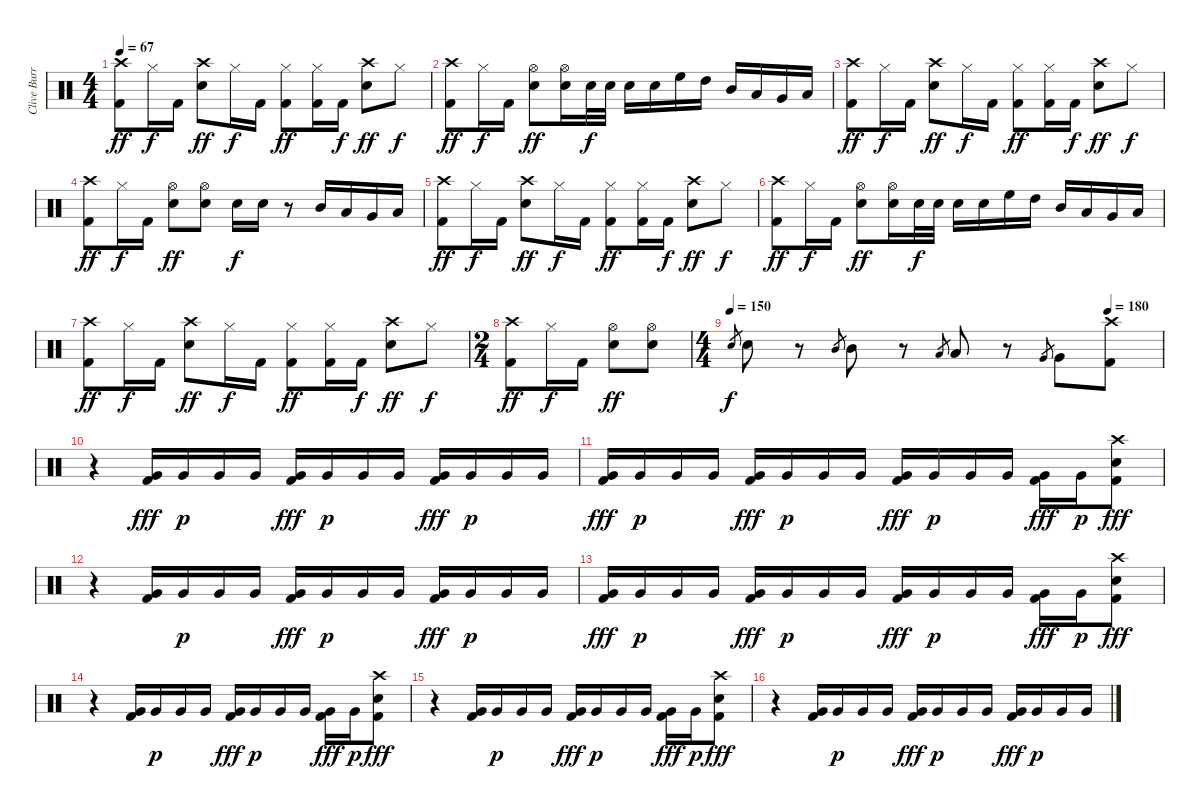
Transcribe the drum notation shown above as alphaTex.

\track ("Clive Burr - Drums" "Clive Burr") {instrument percussion}
\staff {score}
\articulation defaults
\ts (4 4)
\tempo 67
\clef neutral
\ks c
("Crash high (hit)" "Kick (hit) 2").8{dy ff} "Hi-Hat (closed)".16{dy f} "Kick (hit) 2".16 ("Crash high (hit)" "Snare (hit) 2").8{dy ff} "Hi-Hat (closed)".16{dy f} "Kick (hit) 2".16 ("Hi-Hat (closed)" "Kick (hit) 2").8{dy ff} ("Hi-Hat (closed)" "Kick (hit) 2").16 "Kick (hit) 2".16{dy f} ("Crash high (hit)" "Snare (hit) 2").8{dy ff} "Hi-Hat (closed)".8{dy f} |
("Crash high (hit)" "Kick (hit) 2").8{dy ff} "Hi-Hat (closed)".16{dy f} "Kick (hit) 2".16 ("Hi-Hat (open)" "Snare (hit) 2").8{dy ff} ("Hi-Hat (open)" "Snare (hit) 2").16 "Snare (hit) 2".32{dy f} "Snare (hit) 2".32 "Snare (hit) 2".16 "Snare (hit) 2".16 "High Floor Tom (hit)".16 "High Tom (hit)".16 "Mid Tom (hit)".16 "Low Tom (hit)".16 "Very Low Tom (hit)".16 "Low Floor Tom (hit)".16 |
("Crash high (hit)" "Kick (hit) 2").8{dy ff} "Hi-Hat (closed)".16{dy f} "Kick (hit) 2".16 ("Crash high (hit)" "Snare (hit) 2").8{dy ff} "Hi-Hat (closed)".16{dy f} "Kick (hit) 2".16 ("Hi-Hat (closed)" "Kick (hit) 2").8{dy ff} ("Hi-Hat (closed)" "Kick (hit) 2").16 "Kick (hit) 2".16{dy f} ("Crash high (hit)" "Snare (hit) 2").8{dy ff} "Hi-Hat (closed)".8{dy f} |
("Crash high (hit)" "Kick (hit) 2").8{dy ff} "Hi-Hat (closed)".16{dy f} "Kick (hit) 2".16 ("Hi-Hat (open)" "Snare (hit) 2").8{dy ff} ("Hi-Hat (open)" "Snare (hit) 2").8 "Snare (hit) 2".16{dy f} "Snare (hit) 2".16 r.8 "Mid Tom (hit)".16 "Low Tom (hit)".16 "Very Low Tom (hit)".16 "Low Floor Tom (hit)".16 |
("Crash high (hit)" "Kick (hit) 2").8{dy ff} "Hi-Hat (closed)".16{dy f} "Kick (hit) 2".16 ("Crash high (hit)" "Snare (hit) 2").8{dy ff} "Hi-Hat (closed)".16{dy f} "Kick (hit) 2".16 ("Hi-Hat (closed)" "Kick (hit) 2").8{dy ff} ("Hi-Hat (closed)" "Kick (hit) 2").16 "Kick (hit) 2".16{dy f} ("Crash high (hit)" "Snare (hit) 2").8{dy ff} "Hi-Hat (closed)".8{dy f} |
("Crash high (hit)" "Kick (hit) 2").8{dy ff} "Hi-Hat (closed)".16{dy f} "Kick (hit) 2".16 ("Hi-Hat (open)" "Snare (hit) 2").8{dy ff} ("Hi-Hat (open)" "Snare (hit) 2").16 "Snare (hit) 2".32{dy f} "Snare (hit) 2".32 "Snare (hit) 2".16 "Snare (hit) 2".16 "High Floor Tom (hit)".16 "High Tom (hit)".16 "Mid Tom (hit)".16 "Low Tom (hit)".16 "Very Low Tom (hit)".16 "Low Floor Tom (hit)".16 |
("Crash high (hit)" "Kick (hit) 2").8{dy ff} "Hi-Hat (closed)".16{dy f} "Kick (hit) 2".16 ("Crash high (hit)" "Snare (hit) 2").8{dy ff} "Hi-Hat (closed)".16{dy f} "Kick (hit) 2".16 ("Hi-Hat (closed)" "Kick (hit) 2").8{dy ff} ("Hi-Hat (closed)" "Kick (hit) 2").16 "Kick (hit) 2".16{dy f} ("Crash high (hit)" "Snare (hit) 2").8{dy ff} "Hi-Hat (closed)".8{dy f} |
\ts (2 4)
("Crash high (hit)" "Kick (hit) 2").8{dy ff} "Hi-Hat (closed)".16{dy f} "Kick (hit) 2".16 ("Hi-Hat (open)" "Snare (hit) 2").8{dy ff} ("Hi-Hat (open)" "Snare (hit) 2").8 |
\ts (4 4)
\tempo 150
\tempo (180 0.875)
"Snare (hit) 2".8{gr dy f} "Snare (hit) 2".8 r.8 "Mid Tom (hit)".8{gr} "Mid Tom (hit)".8 r.8 "Low Tom (hit)".8{gr} "Low Tom (hit)".8 r.8 "Very Low Tom (hit)".8{gr} "Very Low Tom (hit)".8 ("Crash high (hit)" "Kick (hit) 2").8 |
r.4 ("Very Low Tom (hit)" "Kick (hit) 2").16{dy fff} "Very Low Tom (hit)".16{dy p} "Very Low Tom (hit)".16 "Very Low Tom (hit)".16 ("Very Low Tom (hit)" "Kick (hit) 2").16{dy fff} "Very Low Tom (hit)".16{dy p} "Very Low Tom (hit)".16 "Very Low Tom (hit)".16 ("Very Low Tom (hit)" "Kick (hit) 2").16{dy fff} "Very Low Tom (hit)".16{dy p} "Very Low Tom (hit)".16 "Very Low Tom (hit)".16 |
("Very Low Tom (hit)" "Kick (hit) 2").16{dy fff} "Very Low Tom (hit)".16{dy p} "Very Low Tom (hit)".16 "Very Low Tom (hit)".16 ("Very Low Tom (hit)" "Kick (hit) 2").16{dy fff} "Very Low Tom (hit)".16{dy p} "Very Low Tom (hit)".16 "Very Low Tom (hit)".16 ("Very Low Tom (hit)" "Kick (hit) 2").16{dy fff} "Very Low Tom (hit)".16{dy p} "Very Low Tom (hit)".16 "Very Low Tom (hit)".16 ("Very Low Tom (hit)" "Kick (hit) 2").16{dy fff} "Very Low Tom (hit)".16{dy p} ("Crash high (hit)" "Snare (hit) 2" "Kick (hit) 2").8{dy fff} |
r.4 ("Very Low Tom (hit)" "Kick (hit) 2").16 "Very Low Tom (hit)".16{dy p} "Very Low Tom (hit)".16 "Very Low Tom (hit)".16 ("Very Low Tom (hit)" "Kick (hit) 2").16{dy fff} "Very Low Tom (hit)".16{dy p} "Very Low Tom (hit)".16 "Very Low Tom (hit)".16 ("Very Low Tom (hit)" "Kick (hit) 2").16{dy fff} "Very Low Tom (hit)".16{dy p} "Very Low Tom (hit)".16 "Very Low Tom (hit)".16 |
("Very Low Tom (hit)" "Kick (hit) 2").16{dy fff} "Very Low Tom (hit)".16{dy p} "Very Low Tom (hit)".16 "Very Low Tom (hit)".16 ("Very Low Tom (hit)" "Kick (hit) 2").16{dy fff} "Very Low Tom (hit)".16{dy p} "Very Low Tom (hit)".16 "Very Low Tom (hit)".16 ("Very Low Tom (hit)" "Kick (hit) 2").16{dy fff} "Very Low Tom (hit)".16{dy p} "Very Low Tom (hit)".16 "Very Low Tom (hit)".16 ("Very Low Tom (hit)" "Kick (hit) 2").16{dy fff} "Very Low Tom (hit)".16{dy p} ("Crash high (hit)" "Snare (hit) 2" "Kick (hit) 2").8{dy fff} |
r.4 ("Very Low Tom (hit)" "Kick (hit) 2").16 "Very Low Tom (hit)".16{dy p} "Very Low Tom (hit)".16 "Very Low Tom (hit)".16 ("Very Low Tom (hit)" "Kick (hit) 2").16{dy fff} "Very Low Tom (hit)".16{dy p} "Very Low Tom (hit)".16 "Very Low Tom (hit)".16 ("Very Low Tom (hit)" "Kick (hit) 2").16{dy fff} "Very Low Tom (hit)".16{dy p} ("Crash high (hit)" "Snare (hit) 2" "Kick (hit) 2").8{dy fff} |
r.4 ("Very Low Tom (hit)" "Kick (hit) 2").16 "Very Low Tom (hit)".16{dy p} "Very Low Tom (hit)".16 "Very Low Tom (hit)".16 ("Very Low Tom (hit)" "Kick (hit) 2").16{dy fff} "Very Low Tom (hit)".16{dy p} "Very Low Tom (hit)".16 "Very Low Tom (hit)".16 ("Very Low Tom (hit)" "Kick (hit) 2").16{dy fff} "Very Low Tom (hit)".16{dy p} ("Crash high (hit)" "Snare (hit) 2" "Kick (hit) 2").8{dy fff} |
r.4 ("Very Low Tom (hit)" "Kick (hit) 2").16 "Very Low Tom (hit)".16{dy p} "Very Low Tom (hit)".16 "Very Low Tom (hit)".16 ("Very Low Tom (hit)" "Kick (hit) 2").16{dy fff} "Very Low Tom (hit)".16{dy p} "Very Low Tom (hit)".16 "Very Low Tom (hit)".16 ("Very Low Tom (hit)" "Kick (hit) 2").16{dy fff} "Very Low Tom (hit)".16{dy p} "Very Low Tom (hit)".16 "Very Low Tom (hit)".16
